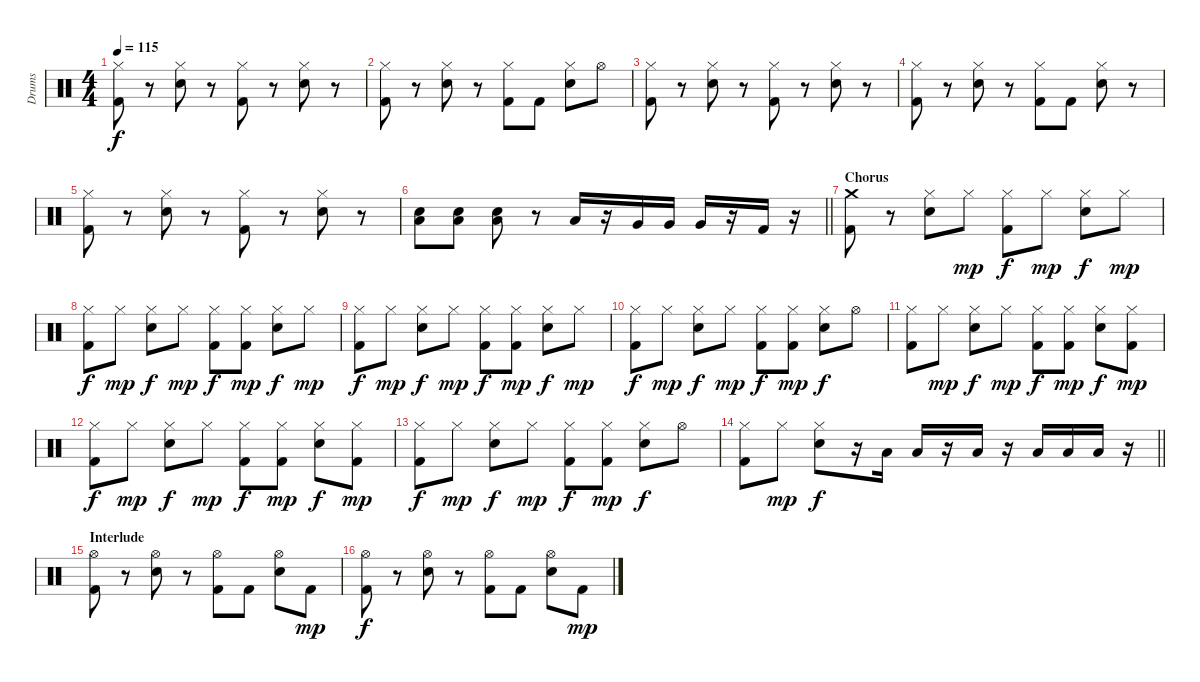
\track ("Drums" "Drums") {instrument percussion}
\staff {score}
\articulation defaults
\ts (4 4)
\tempo 115
\clef neutral
\ks c
("Hi-Hat (closed)" "Kick (hit) 2").8{dy f} r.8 ("Hi-Hat (closed)" "Snare (hit) 2").8 r.8 ("Hi-Hat (closed)" "Kick (hit) 2").8 r.8 ("Hi-Hat (closed)" "Snare (hit) 2").8 r.8 |
("Hi-Hat (closed)" "Kick (hit) 2").8 r.8 ("Hi-Hat (closed)" "Snare (hit) 2").8 r.8 ("Hi-Hat (closed)" "Kick (hit) 2").8 "Kick (hit) 2".8 ("Hi-Hat (closed)" "Snare (hit) 2").8 "Hi-Hat (open)".8 |
("Hi-Hat (closed)" "Kick (hit) 2").8 r.8 ("Hi-Hat (closed)" "Snare (hit) 2").8 r.8 ("Hi-Hat (closed)" "Kick (hit) 2").8 r.8 ("Hi-Hat (closed)" "Snare (hit) 2").8 r.8 |
("Hi-Hat (closed)" "Kick (hit) 2").8 r.8 ("Hi-Hat (closed)" "Snare (hit) 2").8 r.8 ("Hi-Hat (closed)" "Kick (hit) 2").8 "Kick (hit) 2".8 ("Hi-Hat (closed)" "Snare (hit) 2").8 r.8 |
("Hi-Hat (closed)" "Kick (hit) 2").8 r.8 ("Hi-Hat (closed)" "Snare (hit) 2").8 r.8 ("Hi-Hat (closed)" "Kick (hit) 2").8 r.8 ("Hi-Hat (closed)" "Snare (hit) 2").8 r.8 |
\barLineRight lightlight
("Snare (hit) 2" "Low Floor Tom (hit)").8 ("Snare (hit) 2" "Low Floor Tom (hit)").8 ("Snare (hit) 2" "Low Floor Tom (hit)").8 r.8 "Low Tom (hit)".16 r.16 "Very Low Tom (hit)".16 "Very Low Tom (hit)".16 "Very Low Tom (hit)".16 r.16 "Kick (hit) 2".16 r.16 |
\section ("" "Chorus")
("Crash medium (hit)" "Kick (hit) 2").8 r.8 ("Hi-Hat (closed)" "Snare (hit) 2").8 "Hi-Hat (closed)".8{dy mp} ("Hi-Hat (closed)" "Kick (hit) 2").8{dy f} "Hi-Hat (closed)".8{dy mp} ("Hi-Hat (closed)" "Snare (hit) 2").8{dy f} "Hi-Hat (closed)".8{dy mp} |
("Hi-Hat (closed)" "Kick (hit) 2").8{dy f} "Hi-Hat (closed)".8{dy mp} ("Hi-Hat (closed)" "Snare (hit) 2").8{dy f} "Hi-Hat (closed)".8{dy mp} ("Hi-Hat (closed)" "Kick (hit) 2").8{dy f} ("Hi-Hat (closed)" "Kick (hit) 2").8{dy mp} ("Hi-Hat (closed)" "Snare (hit) 2").8{dy f} "Hi-Hat (closed)".8{dy mp} |
("Hi-Hat (closed)" "Kick (hit) 2").8{dy f} "Hi-Hat (closed)".8{dy mp} ("Hi-Hat (closed)" "Snare (hit) 2").8{dy f} "Hi-Hat (closed)".8{dy mp} ("Hi-Hat (closed)" "Kick (hit) 2").8{dy f} ("Hi-Hat (closed)" "Kick (hit) 2").8{dy mp} ("Hi-Hat (closed)" "Snare (hit) 2").8{dy f} "Hi-Hat (closed)".8{dy mp} |
("Hi-Hat (closed)" "Kick (hit) 2").8{dy f} "Hi-Hat (closed)".8{dy mp} ("Hi-Hat (closed)" "Snare (hit) 2").8{dy f} "Hi-Hat (closed)".8{dy mp} ("Hi-Hat (closed)" "Kick (hit) 2").8{dy f} ("Hi-Hat (closed)" "Kick (hit) 2").8{dy mp} ("Hi-Hat (closed)" "Snare (hit) 2").8{dy f} "Hi-Hat (open)".8 |
("Hi-Hat (closed)" "Kick (hit) 2").8 "Hi-Hat (closed)".8{dy mp} ("Hi-Hat (closed)" "Snare (hit) 2").8{dy f} "Hi-Hat (closed)".8{dy mp} ("Hi-Hat (closed)" "Kick (hit) 2").8{dy f} ("Hi-Hat (closed)" "Kick (hit) 2").8{dy mp} ("Hi-Hat (closed)" "Snare (hit) 2").8{dy f} ("Hi-Hat (closed)" "Kick (hit) 2").8{dy mp} |
("Hi-Hat (closed)" "Kick (hit) 2").8{dy f} "Hi-Hat (closed)".8{dy mp} ("Hi-Hat (closed)" "Snare (hit) 2").8{dy f} "Hi-Hat (closed)".8{dy mp} ("Hi-Hat (closed)" "Kick (hit) 2").8{dy f} ("Hi-Hat (closed)" "Kick (hit) 2").8{dy mp} ("Hi-Hat (closed)" "Snare (hit) 2").8{dy f} ("Hi-Hat (closed)" "Kick (hit) 2").8{dy mp} |
("Hi-Hat (closed)" "Kick (hit) 2").8{dy f} "Hi-Hat (closed)".8{dy mp} ("Hi-Hat (closed)" "Snare (hit) 2").8{dy f} "Hi-Hat (closed)".8{dy mp} ("Hi-Hat (closed)" "Kick (hit) 2").8{dy f} ("Hi-Hat (closed)" "Kick (hit) 2").8{dy mp} ("Hi-Hat (closed)" "Snare (hit) 2").8{dy f} "Hi-Hat (open)".8 |
\barLineRight lightlight
("Hi-Hat (closed)" "Kick (hit) 2").8 "Hi-Hat (closed)".8{dy mp} ("Hi-Hat (closed)" "Snare (hit) 2").8{dy f} r.16 "Low Tom (hit)".16 "Low Tom (hit)".16 r.16 "Low Floor Tom (hit)".16 r.16 "Low Tom (hit)".16 "Low Tom (hit)".16 "Low Floor Tom (hit)".16 r.16 |
\section ("" "Interlude")
("Hi-Hat (open)" "Kick (hit) 2").8 r.8 ("Hi-Hat (open)" "Snare (hit) 2").8 r.8 ("Hi-Hat (open)" "Kick (hit) 2").8 "Kick (hit) 2".8 ("Hi-Hat (open)" "Snare (hit) 2").8 "Kick (hit) 2".8{dy mp} |
("Hi-Hat (open)" "Kick (hit) 2").8{dy f} r.8 ("Hi-Hat (open)" "Snare (hit) 2").8 r.8 ("Hi-Hat (open)" "Kick (hit) 2").8 "Kick (hit) 2".8 ("Hi-Hat (open)" "Snare (hit) 2").8 "Kick (hit) 2".8{dy mp}
